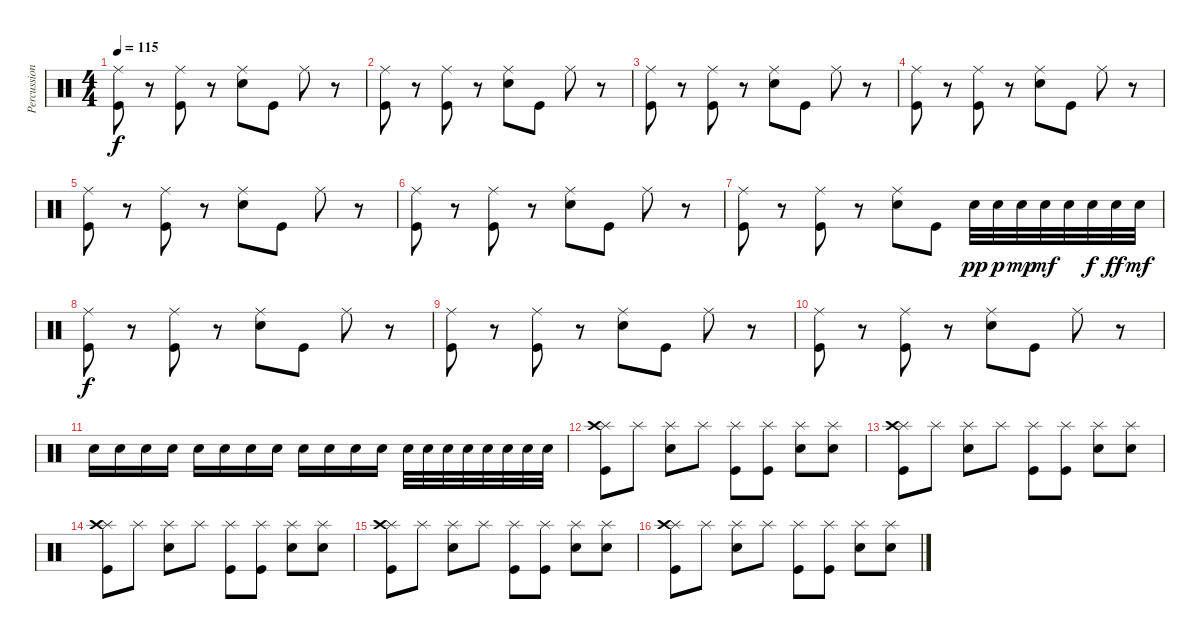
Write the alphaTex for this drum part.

\track ("Percussions" "Percussion") {instrument percussion}
\staff {score}
\articulation defaults
\ts (4 4)
\tempo 115
\clef neutral
\ks c
("Ride (middle)" "Kick (hit)").8{dy f} r.8 ("Ride (middle)" "Kick (hit)").8 r.8 ("Ride (middle)" "Electric Snare (hit)").8 "Kick (hit)".8 "Ride (middle)".8 r.8 |
("Ride (middle)" "Kick (hit)").8 r.8 ("Ride (middle)" "Kick (hit)").8 r.8 ("Ride (middle)" "Electric Snare (hit)").8 "Kick (hit)".8 "Ride (middle)".8 r.8 |
("Ride (middle)" "Kick (hit)").8 r.8 ("Ride (middle)" "Kick (hit)").8 r.8 ("Ride (middle)" "Electric Snare (hit)").8 "Kick (hit)".8 "Ride (middle)".8 r.8 |
("Ride (middle)" "Kick (hit)").8 r.8 ("Ride (middle)" "Kick (hit)").8 r.8 ("Ride (middle)" "Electric Snare (hit)").8 "Kick (hit)".8 "Ride (middle)".8 r.8 |
("Ride (middle)" "Kick (hit)").8 r.8 ("Ride (middle)" "Kick (hit)").8 r.8 ("Ride (middle)" "Electric Snare (hit)").8 "Kick (hit)".8 "Ride (middle)".8 r.8 |
("Ride (middle)" "Kick (hit)").8 r.8 ("Ride (middle)" "Kick (hit)").8 r.8 ("Ride (middle)" "Electric Snare (hit)").8 "Kick (hit)".8 "Ride (middle)".8 r.8 |
("Ride (middle)" "Kick (hit)").8 r.8 ("Ride (middle)" "Kick (hit)").8 r.8 ("Ride (middle)" "Electric Snare (hit)").8 "Kick (hit)".8 "Electric Snare (hit)".32{dy pp} "Electric Snare (hit)".32{dy p} "Electric Snare (hit)".32{dy mp} "Electric Snare (hit)".32{dy mf} "Electric Snare (hit)".32 "Electric Snare (hit)".32{dy f} "Electric Snare (hit)".32{dy ff} "Electric Snare (hit)".32{dy mf} |
("Ride (middle)" "Kick (hit)").8{dy f} r.8 ("Ride (middle)" "Kick (hit)").8 r.8 ("Ride (middle)" "Electric Snare (hit)").8 "Kick (hit)".8 "Ride (middle)".8 r.8 |
("Ride (middle)" "Kick (hit)").8 r.8 ("Ride (middle)" "Kick (hit)").8 r.8 ("Ride (middle)" "Electric Snare (hit)").8 "Kick (hit)".8 "Ride (middle)".8 r.8 |
("Ride (middle)" "Kick (hit)").8 r.8 ("Ride (middle)" "Kick (hit)").8 r.8 ("Ride (middle)" "Electric Snare (hit)").8 "Kick (hit)".8 "Ride (middle)".8 r.8 |
"Electric Snare (hit)".16 "Electric Snare (hit)".16 "Electric Snare (hit)".16 "Electric Snare (hit)".16 "Electric Snare (hit)".16 "Electric Snare (hit)".16 "Electric Snare (hit)".16 "Electric Snare (hit)".16 "Electric Snare (hit)".16 "Electric Snare (hit)".16 "Electric Snare (hit)".16 "Electric Snare (hit)".16 "Electric Snare (hit)".32 "Electric Snare (hit)".32 "Electric Snare (hit)".32 "Electric Snare (hit)".32 "Electric Snare (hit)".32 "Electric Snare (hit)".32 "Electric Snare (hit)".32 "Electric Snare (hit)".32 |
("Splash (hit)" "Crash high (hit)" "Kick (hit)").8 "Splash (hit)".8 ("Splash (hit)" "Electric Snare (hit)").8 "Splash (hit)".8 ("Splash (hit)" "Kick (hit)").8 ("Splash (hit)" "Kick (hit)").8 ("Splash (hit)" "Electric Snare (hit)").8 ("Splash (hit)" "Electric Snare (hit)").8 |
("Splash (hit)" "Crash high (hit)" "Kick (hit)").8 "Splash (hit)".8 ("Splash (hit)" "Electric Snare (hit)").8 "Splash (hit)".8 ("Splash (hit)" "Kick (hit)").8 ("Splash (hit)" "Kick (hit)").8 ("Splash (hit)" "Electric Snare (hit)").8 ("Splash (hit)" "Electric Snare (hit)").8 |
("Splash (hit)" "Crash high (hit)" "Kick (hit)").8 "Splash (hit)".8 ("Splash (hit)" "Electric Snare (hit)").8 "Splash (hit)".8 ("Splash (hit)" "Kick (hit)").8 ("Splash (hit)" "Kick (hit)").8 ("Splash (hit)" "Electric Snare (hit)").8 ("Splash (hit)" "Electric Snare (hit)").8 |
("Splash (hit)" "Crash high (hit)" "Kick (hit)").8 "Splash (hit)".8 ("Splash (hit)" "Electric Snare (hit)").8 "Splash (hit)".8 ("Splash (hit)" "Kick (hit)").8 ("Splash (hit)" "Kick (hit)").8 ("Splash (hit)" "Electric Snare (hit)").8 ("Splash (hit)" "Electric Snare (hit)").8 |
("Splash (hit)" "Crash high (hit)" "Kick (hit)").8 "Splash (hit)".8 ("Splash (hit)" "Electric Snare (hit)").8 "Splash (hit)".8 ("Splash (hit)" "Kick (hit)").8 ("Splash (hit)" "Kick (hit)").8 ("Splash (hit)" "Electric Snare (hit)").8 ("Splash (hit)" "Electric Snare (hit)").8
